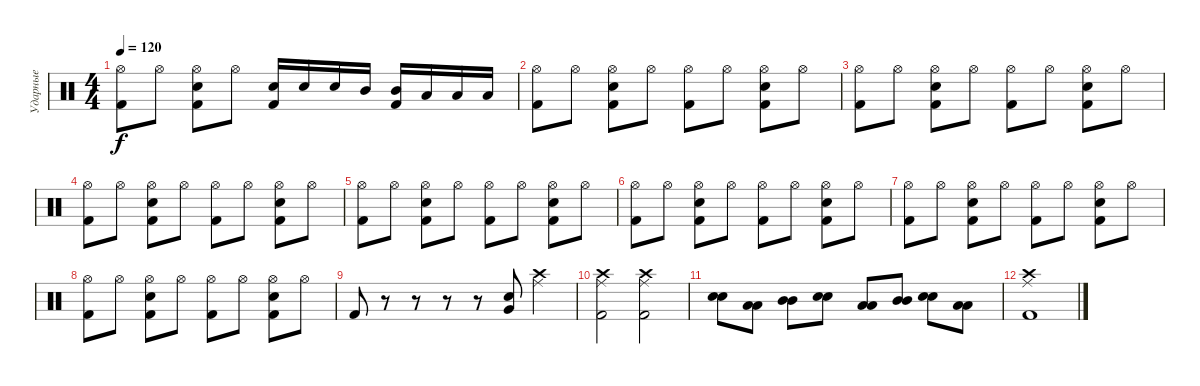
\track ("Ударные" "Ударные") {instrument percussion}
\staff {score}
\articulation defaults
\ts (4 4)
\tempo 120
\clef neutral
\ks c
("Hi-Hat (open)" "Kick (hit) 2").8{dy f} "Hi-Hat (open)".8 ("Hi-Hat (open)" "Kick (hit) 2" "Snare (hit) 2").8 "Hi-Hat (open)".8 ("Snare (hit) 2" "Kick (hit) 2").16 "Snare (hit) 2".16 "Snare (hit) 2".16 "Mid Tom (hit)".16 ("Mid Tom (hit)" "Kick (hit) 2").16 "Low Tom (hit)".16 "Low Tom (hit)".16 "Low Tom (hit)".16 |
("Hi-Hat (open)" "Kick (hit) 2").8 "Hi-Hat (open)".8 ("Hi-Hat (open)" "Kick (hit) 2" "Snare (hit) 2").8 "Hi-Hat (open)".8 ("Hi-Hat (open)" "Kick (hit) 2").8 "Hi-Hat (open)".8 ("Hi-Hat (open)" "Kick (hit) 2" "Snare (hit) 2").8 "Hi-Hat (open)".8 |
("Hi-Hat (open)" "Kick (hit) 2").8 "Hi-Hat (open)".8 ("Hi-Hat (open)" "Kick (hit) 2" "Snare (hit) 2").8 "Hi-Hat (open)".8 ("Hi-Hat (open)" "Kick (hit) 2").8 "Hi-Hat (open)".8 ("Hi-Hat (open)" "Kick (hit) 2" "Snare (hit) 2").8 "Hi-Hat (open)".8 |
("Hi-Hat (open)" "Kick (hit) 2").8 "Hi-Hat (open)".8 ("Hi-Hat (open)" "Kick (hit) 2" "Snare (hit) 2").8 "Hi-Hat (open)".8 ("Hi-Hat (open)" "Kick (hit) 2").8 "Hi-Hat (open)".8 ("Hi-Hat (open)" "Kick (hit) 2" "Snare (hit) 2").8 "Hi-Hat (open)".8 |
("Hi-Hat (open)" "Kick (hit) 2").8 "Hi-Hat (open)".8 ("Hi-Hat (open)" "Kick (hit) 2" "Snare (hit) 2").8 "Hi-Hat (open)".8 ("Hi-Hat (open)" "Kick (hit) 2").8 "Hi-Hat (open)".8 ("Hi-Hat (open)" "Kick (hit) 2" "Snare (hit) 2").8 "Hi-Hat (open)".8 |
("Hi-Hat (open)" "Kick (hit) 2").8 "Hi-Hat (open)".8 ("Hi-Hat (open)" "Kick (hit) 2" "Snare (hit) 2").8 "Hi-Hat (open)".8 ("Hi-Hat (open)" "Kick (hit) 2").8 "Hi-Hat (open)".8 ("Hi-Hat (open)" "Kick (hit) 2" "Snare (hit) 2").8 "Hi-Hat (open)".8 |
("Hi-Hat (open)" "Kick (hit) 2").8 "Hi-Hat (open)".8 ("Hi-Hat (open)" "Kick (hit) 2" "Snare (hit) 2").8 "Hi-Hat (open)".8 ("Hi-Hat (open)" "Kick (hit) 2").8 "Hi-Hat (open)".8 ("Hi-Hat (open)" "Kick (hit) 2" "Snare (hit) 2").8 "Hi-Hat (open)".8 |
("Hi-Hat (open)" "Kick (hit) 2").8 "Hi-Hat (open)".8 ("Hi-Hat (open)" "Kick (hit) 2" "Snare (hit) 2").8 "Hi-Hat (open)".8 ("Hi-Hat (open)" "Kick (hit) 2").8 "Hi-Hat (open)".8 ("Hi-Hat (open)" "Kick (hit) 2" "Snare (hit) 2").8 "Hi-Hat (open)".8 |
"Kick (hit) 2".8 r.8 r.8 r.8 r.8 ("Snare (hit) 2" "Very Low Tom (hit)").8 ("Ride (middle)" "Crash high (hit)").4 |
("Ride (middle)" "Crash high (hit)" "Kick (hit) 2").2 ("Crash high (hit)" "Ride (middle)" "Kick (hit) 2").2 |
("Snare (hit) 2" "Snare (hit) 2").8 ("Low Tom (hit)" "Low Tom (hit)").8 ("Mid Tom (hit)" "Mid Tom (hit)").8 ("Snare (hit) 2" "Snare (hit) 2").8 ("Low Tom (hit)" "Low Tom (hit)").8 ("Mid Tom (hit)" "Mid Tom (hit)").8 ("Snare (hit) 2" "Snare (hit) 2").8 ("Low Tom (hit)" "Low Tom (hit)").8 |
("Kick (hit) 2" "Crash high (hit)" "Ride (middle)").1
